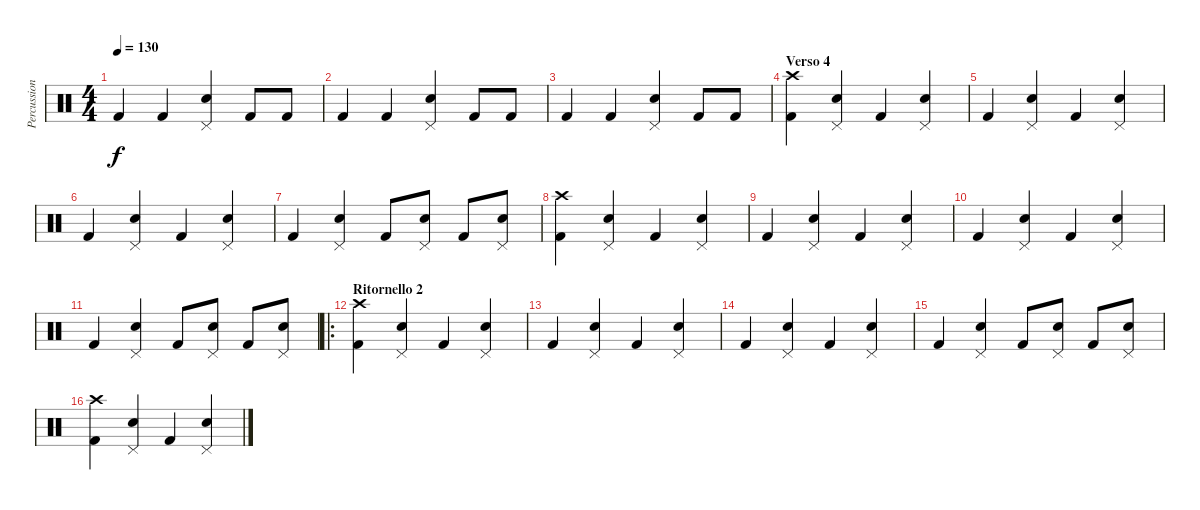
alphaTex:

\track ("Percussioni" "Percussion") {instrument percussion}
\staff {score}
\articulation defaults
\ts (4 4)
\tempo 130
\clef neutral
\ks c "Kick (hit) 2".4{dy f} "Kick (hit) 2".4
("Pedal Hi-Hat (hit)" "Snare (hit) 2").4 "Kick (hit) 2".8 "Kick (hit) 2".8 |
"Kick (hit) 2".4 "Kick (hit) 2".4 ("Pedal Hi-Hat (hit)" "Snare (hit) 2").4 "Kick (hit) 2".8 "Kick (hit) 2".8 |
"Kick (hit) 2".4 "Kick (hit) 2".4 ("Pedal Hi-Hat (hit)" "Snare (hit) 2").4 "Kick (hit) 2".8 "Kick (hit) 2".8 |
\section ("" "Verso 4")
("Crash high (hit)" "Kick (hit) 2").4 ("Pedal Hi-Hat (hit)" "Snare (hit) 2").4 "Kick (hit) 2".4 ("Pedal Hi-Hat (hit)" "Snare (hit) 2").4 |
"Kick (hit) 2".4 ("Pedal Hi-Hat (hit)" "Snare (hit) 2").4 "Kick (hit) 2".4 ("Pedal Hi-Hat (hit)" "Snare (hit) 2").4 |
"Kick (hit) 2".4 ("Pedal Hi-Hat (hit)" "Snare (hit) 2").4 "Kick (hit) 2".4 ("Pedal Hi-Hat (hit)" "Snare (hit) 2").4 |
"Kick (hit) 2".4 ("Pedal Hi-Hat (hit)" "Snare (hit) 2").4 "Kick (hit) 2".8 ("Pedal Hi-Hat (hit)" "Snare (hit) 2").8 "Kick (hit) 2".8 ("Pedal Hi-Hat (hit)" "Snare (hit) 2").8 |
("Crash high (hit)" "Kick (hit) 2").4 ("Pedal Hi-Hat (hit)" "Snare (hit) 2").4 "Kick (hit) 2".4 ("Pedal Hi-Hat (hit)" "Snare (hit) 2").4 |
"Kick (hit) 2".4 ("Pedal Hi-Hat (hit)" "Snare (hit) 2").4 "Kick (hit) 2".4 ("Pedal Hi-Hat (hit)" "Snare (hit) 2").4 |
"Kick (hit) 2".4 ("Pedal Hi-Hat (hit)" "Snare (hit) 2").4 "Kick (hit) 2".4 ("Pedal Hi-Hat (hit)" "Snare (hit) 2").4 |
"Kick (hit) 2".4 ("Pedal Hi-Hat (hit)" "Snare (hit) 2").4 "Kick (hit) 2".8 ("Pedal Hi-Hat (hit)" "Snare (hit) 2").8 "Kick (hit) 2".8 ("Pedal Hi-Hat (hit)" "Snare (hit) 2").8 |
\ro
\section ("" "Ritornello 2")
("Crash high (hit)" "Kick (hit) 2").4{volume 13} ("Pedal Hi-Hat (hit)" "Snare (hit) 2").4 "Kick (hit) 2".4 ("Pedal Hi-Hat (hit)" "Snare (hit) 2").4 |
"Kick (hit) 2".4 ("Pedal Hi-Hat (hit)" "Snare (hit) 2").4 "Kick (hit) 2".4 ("Pedal Hi-Hat (hit)" "Snare (hit) 2").4 |
"Kick (hit) 2".4 ("Pedal Hi-Hat (hit)" "Snare (hit) 2").4 "Kick (hit) 2".4 ("Pedal Hi-Hat (hit)" "Snare (hit) 2").4 |
"Kick (hit) 2".4 ("Pedal Hi-Hat (hit)" "Snare (hit) 2").4 "Kick (hit) 2".8 ("Pedal Hi-Hat (hit)" "Snare (hit) 2").8 "Kick (hit) 2".8 ("Pedal Hi-Hat (hit)" "Snare (hit) 2").8 |
("Crash high (hit)" "Kick (hit) 2").4{volume 13} ("Pedal Hi-Hat (hit)" "Snare (hit) 2").4 "Kick (hit) 2".4 ("Pedal Hi-Hat (hit)" "Snare (hit) 2").4
